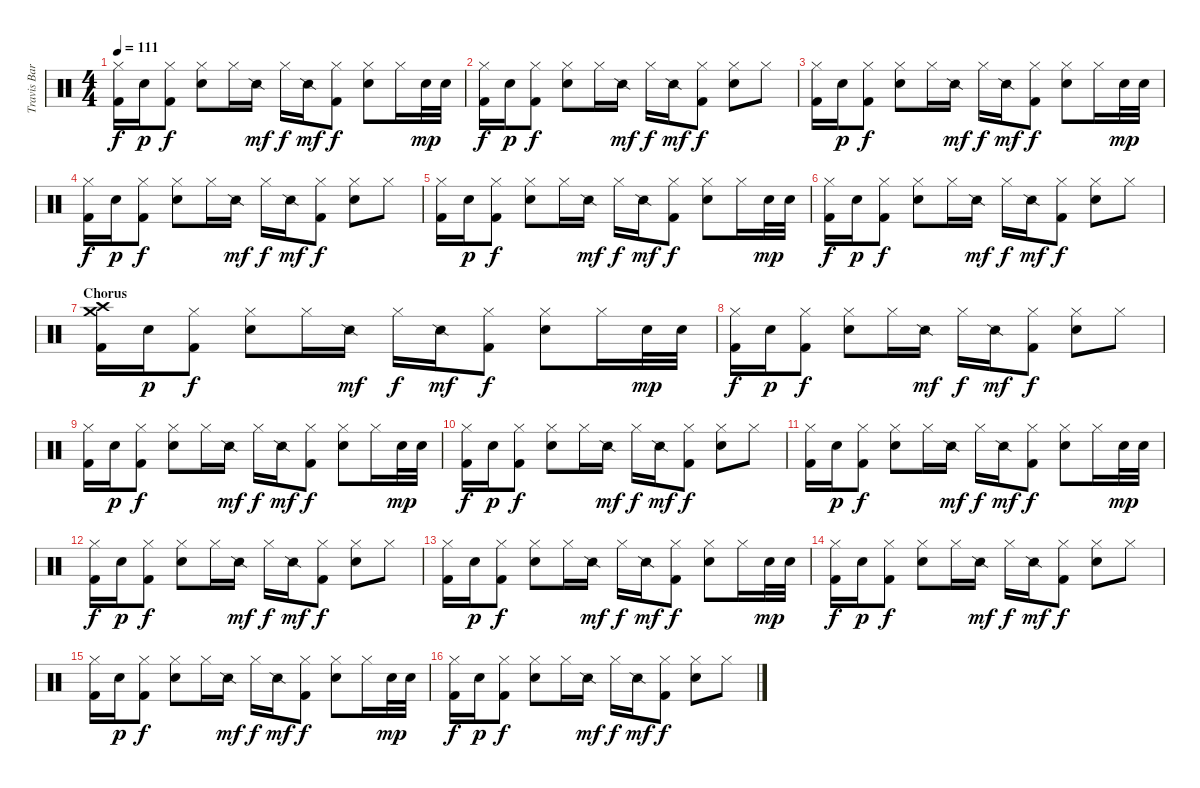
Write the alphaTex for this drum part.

\track ("Travis Barker - Drums" "Travis Bar") {instrument percussion}
\staff {score}
\articulation defaults
\ts (4 4)
\tempo 111
\clef neutral
\ks c
("Hi-Hat (closed)" "Kick (hit) 2").16{dy f} "Electric Snare (hit)".16{dy p} ("Hi-Hat (closed)" "Kick (hit) 2").8{dy f} ("Hi-Hat (closed)" "Electric Snare (hit)").8 "Hi-Hat (closed)".16 "Snare (side stick) 2".16{dy mf} "Hi-Hat (closed)".16{dy f} "Snare (side stick) 2".16{dy mf} ("Hi-Hat (closed)" "Kick (hit) 2").8{dy f} ("Hi-Hat (closed)" "Electric Snare (hit)").8 "Hi-Hat (closed)".16 "Electric Snare (hit)".32{dy mp} "Electric Snare (hit)".32 |
("Hi-Hat (closed)" "Kick (hit) 2").16{dy f} "Electric Snare (hit)".16{dy p} ("Hi-Hat (closed)" "Kick (hit) 2").8{dy f} ("Hi-Hat (closed)" "Electric Snare (hit)").8 "Hi-Hat (closed)".16 "Snare (side stick) 2".16{dy mf} "Hi-Hat (closed)".16{dy f} "Snare (side stick) 2".16{dy mf} ("Hi-Hat (closed)" "Kick (hit) 2").8{dy f} ("Hi-Hat (closed)" "Electric Snare (hit)").8 "Hi-Hat (closed)".8 |
("Hi-Hat (closed)" "Kick (hit) 2").16 "Electric Snare (hit)".16{dy p} ("Hi-Hat (closed)" "Kick (hit) 2").8{dy f} ("Hi-Hat (closed)" "Electric Snare (hit)").8 "Hi-Hat (closed)".16 "Snare (side stick) 2".16{dy mf} "Hi-Hat (closed)".16{dy f} "Snare (side stick) 2".16{dy mf} ("Hi-Hat (closed)" "Kick (hit) 2").8{dy f} ("Hi-Hat (closed)" "Electric Snare (hit)").8 "Hi-Hat (closed)".16 "Electric Snare (hit)".32{dy mp} "Electric Snare (hit)".32 |
("Hi-Hat (closed)" "Kick (hit) 2").16{dy f} "Electric Snare (hit)".16{dy p} ("Hi-Hat (closed)" "Kick (hit) 2").8{dy f} ("Hi-Hat (closed)" "Electric Snare (hit)").8 "Hi-Hat (closed)".16 "Snare (side stick) 2".16{dy mf} "Hi-Hat (closed)".16{dy f} "Snare (side stick) 2".16{dy mf} ("Hi-Hat (closed)" "Kick (hit) 2").8{dy f} ("Hi-Hat (closed)" "Electric Snare (hit)").8 "Hi-Hat (closed)".8 |
("Hi-Hat (closed)" "Kick (hit) 2").16 "Electric Snare (hit)".16{dy p} ("Hi-Hat (closed)" "Kick (hit) 2").8{dy f} ("Hi-Hat (closed)" "Electric Snare (hit)").8 "Hi-Hat (closed)".16 "Snare (side stick) 2".16{dy mf} "Hi-Hat (closed)".16{dy f} "Snare (side stick) 2".16{dy mf} ("Hi-Hat (closed)" "Kick (hit) 2").8{dy f} ("Hi-Hat (closed)" "Electric Snare (hit)").8 "Hi-Hat (closed)".16 "Electric Snare (hit)".32{dy mp} "Electric Snare (hit)".32 |
("Hi-Hat (closed)" "Kick (hit) 2").16{dy f} "Electric Snare (hit)".16{dy p} ("Hi-Hat (closed)" "Kick (hit) 2").8{dy f} ("Hi-Hat (closed)" "Electric Snare (hit)").8 "Hi-Hat (closed)".16 "Snare (side stick) 2".16{dy mf} "Hi-Hat (closed)".16{dy f} "Snare (side stick) 2".16{dy mf} ("Hi-Hat (closed)" "Kick (hit) 2").8{dy f} ("Hi-Hat (closed)" "Electric Snare (hit)").8 "Hi-Hat (closed)".8 |
\section ("" "Chorus")
("Crash high (hit)" "Crash medium (hit)" "Kick (hit) 2").16 "Electric Snare (hit)".16{dy p} ("Hi-Hat (closed)" "Kick (hit) 2").8{dy f} ("Hi-Hat (closed)" "Electric Snare (hit)").8 "Hi-Hat (closed)".16 "Snare (side stick) 2".16{dy mf} "Hi-Hat (closed)".16{dy f} "Snare (side stick) 2".16{dy mf} ("Hi-Hat (closed)" "Kick (hit) 2").8{dy f} ("Hi-Hat (closed)" "Electric Snare (hit)").8 "Hi-Hat (closed)".16 "Electric Snare (hit)".32{dy mp} "Electric Snare (hit)".32 |
("Hi-Hat (closed)" "Kick (hit) 2").16{dy f} "Electric Snare (hit)".16{dy p} ("Hi-Hat (closed)" "Kick (hit) 2").8{dy f} ("Hi-Hat (closed)" "Electric Snare (hit)").8 "Hi-Hat (closed)".16 "Snare (side stick) 2".16{dy mf} "Hi-Hat (closed)".16{dy f} "Snare (side stick) 2".16{dy mf} ("Hi-Hat (closed)" "Kick (hit) 2").8{dy f} ("Hi-Hat (closed)" "Electric Snare (hit)").8 "Hi-Hat (closed)".8 |
("Hi-Hat (closed)" "Kick (hit) 2").16 "Electric Snare (hit)".16{dy p} ("Hi-Hat (closed)" "Kick (hit) 2").8{dy f} ("Hi-Hat (closed)" "Electric Snare (hit)").8 "Hi-Hat (closed)".16 "Snare (side stick) 2".16{dy mf} "Hi-Hat (closed)".16{dy f} "Snare (side stick) 2".16{dy mf} ("Hi-Hat (closed)" "Kick (hit) 2").8{dy f} ("Hi-Hat (closed)" "Electric Snare (hit)").8 "Hi-Hat (closed)".16 "Electric Snare (hit)".32{dy mp} "Electric Snare (hit)".32 |
("Hi-Hat (closed)" "Kick (hit) 2").16{dy f} "Electric Snare (hit)".16{dy p} ("Hi-Hat (closed)" "Kick (hit) 2").8{dy f} ("Hi-Hat (closed)" "Electric Snare (hit)").8 "Hi-Hat (closed)".16 "Snare (side stick) 2".16{dy mf} "Hi-Hat (closed)".16{dy f} "Snare (side stick) 2".16{dy mf} ("Hi-Hat (closed)" "Kick (hit) 2").8{dy f} ("Hi-Hat (closed)" "Electric Snare (hit)").8 "Hi-Hat (closed)".8 |
("Hi-Hat (closed)" "Kick (hit) 2").16 "Electric Snare (hit)".16{dy p} ("Hi-Hat (closed)" "Kick (hit) 2").8{dy f} ("Hi-Hat (closed)" "Electric Snare (hit)").8 "Hi-Hat (closed)".16 "Snare (side stick) 2".16{dy mf} "Hi-Hat (closed)".16{dy f} "Snare (side stick) 2".16{dy mf} ("Hi-Hat (closed)" "Kick (hit) 2").8{dy f} ("Hi-Hat (closed)" "Electric Snare (hit)").8 "Hi-Hat (closed)".16 "Electric Snare (hit)".32{dy mp} "Electric Snare (hit)".32 |
("Hi-Hat (closed)" "Kick (hit) 2").16{dy f} "Electric Snare (hit)".16{dy p} ("Hi-Hat (closed)" "Kick (hit) 2").8{dy f} ("Hi-Hat (closed)" "Electric Snare (hit)").8 "Hi-Hat (closed)".16 "Snare (side stick) 2".16{dy mf} "Hi-Hat (closed)".16{dy f} "Snare (side stick) 2".16{dy mf} ("Hi-Hat (closed)" "Kick (hit) 2").8{dy f} ("Hi-Hat (closed)" "Electric Snare (hit)").8 "Hi-Hat (closed)".8 |
("Hi-Hat (closed)" "Kick (hit) 2").16 "Electric Snare (hit)".16{dy p} ("Hi-Hat (closed)" "Kick (hit) 2").8{dy f} ("Hi-Hat (closed)" "Electric Snare (hit)").8 "Hi-Hat (closed)".16 "Snare (side stick) 2".16{dy mf} "Hi-Hat (closed)".16{dy f} "Snare (side stick) 2".16{dy mf} ("Hi-Hat (closed)" "Kick (hit) 2").8{dy f} ("Hi-Hat (closed)" "Electric Snare (hit)").8 "Hi-Hat (closed)".16 "Electric Snare (hit)".32{dy mp} "Electric Snare (hit)".32 |
("Hi-Hat (closed)" "Kick (hit) 2").16{dy f} "Electric Snare (hit)".16{dy p} ("Hi-Hat (closed)" "Kick (hit) 2").8{dy f} ("Hi-Hat (closed)" "Electric Snare (hit)").8 "Hi-Hat (closed)".16 "Snare (side stick) 2".16{dy mf} "Hi-Hat (closed)".16{dy f} "Snare (side stick) 2".16{dy mf} ("Hi-Hat (closed)" "Kick (hit) 2").8{dy f} ("Hi-Hat (closed)" "Electric Snare (hit)").8 "Hi-Hat (closed)".8 |
("Hi-Hat (closed)" "Kick (hit) 2").16 "Electric Snare (hit)".16{dy p} ("Hi-Hat (closed)" "Kick (hit) 2").8{dy f} ("Hi-Hat (closed)" "Electric Snare (hit)").8 "Hi-Hat (closed)".16 "Snare (side stick) 2".16{dy mf} "Hi-Hat (closed)".16{dy f} "Snare (side stick) 2".16{dy mf} ("Hi-Hat (closed)" "Kick (hit) 2").8{dy f} ("Hi-Hat (closed)" "Electric Snare (hit)").8 "Hi-Hat (closed)".16 "Electric Snare (hit)".32{dy mp} "Electric Snare (hit)".32 |
("Hi-Hat (closed)" "Kick (hit) 2").16{dy f} "Electric Snare (hit)".16{dy p} ("Hi-Hat (closed)" "Kick (hit) 2").8{dy f} ("Hi-Hat (closed)" "Electric Snare (hit)").8 "Hi-Hat (closed)".16 "Snare (side stick) 2".16{dy mf} "Hi-Hat (closed)".16{dy f} "Snare (side stick) 2".16{dy mf} ("Hi-Hat (closed)" "Kick (hit) 2").8{dy f} ("Hi-Hat (closed)" "Electric Snare (hit)").8 "Hi-Hat (closed)".8
